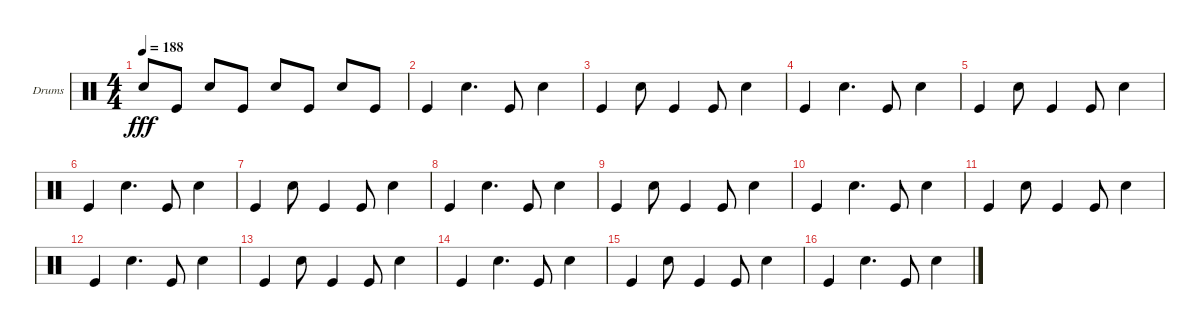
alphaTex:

\defaultSystemsLayout 4
\bracketExtendMode groupsimilarinstruments
\firstSystemTrackNameOrientation horizontal
\otherSystemsTrackNameOrientation horizontal
\track ("Пашок" "Drums") {instrument percussion}
\staff {score}
\articulation defaults
\ts (4 4)
\tempo 188
\clef neutral
\ks c "Snare (hit) 2".8{dy fff} "Kick (hit)".8 "Snare (hit) 2".8 "Kick (hit)".8 "Snare (hit) 2".8 "Kick (hit)".8 "Snare (hit) 2".8 "Kick (hit)".8
|
"Kick (hit)".4 "Snare (hit) 2".4{d} "Kick (hit)".8 "Snare (hit) 2".4 |
"Kick (hit)".4 "Snare (hit) 2".8 "Kick (hit)".4 "Kick (hit)".8 "Snare (hit) 2".4 |
"Kick (hit)".4 "Snare (hit) 2".4{d} "Kick (hit)".8 "Snare (hit) 2".4 |
"Kick (hit)".4 "Snare (hit) 2".8 "Kick (hit)".4 "Kick (hit)".8 "Snare (hit) 2".4 |
"Kick (hit)".4 "Snare (hit) 2".4{d} "Kick (hit)".8 "Snare (hit) 2".4 |
"Kick (hit)".4 "Snare (hit) 2".8 "Kick (hit)".4 "Kick (hit)".8 "Snare (hit) 2".4 |
"Kick (hit)".4 "Snare (hit) 2".4{d} "Kick (hit)".8 "Snare (hit) 2".4 |
"Kick (hit)".4 "Snare (hit) 2".8 "Kick (hit)".4 "Kick (hit)".8 "Snare (hit) 2".4 |
"Kick (hit)".4 "Snare (hit) 2".4{d} "Kick (hit)".8 "Snare (hit) 2".4 |
"Kick (hit)".4 "Snare (hit) 2".8 "Kick (hit)".4 "Kick (hit)".8 "Snare (hit) 2".4 |
"Kick (hit)".4 "Snare (hit) 2".4{d} "Kick (hit)".8 "Snare (hit) 2".4 |
"Kick (hit)".4 "Snare (hit) 2".8 "Kick (hit)".4 "Kick (hit)".8 "Snare (hit) 2".4 |
"Kick (hit)".4 "Snare (hit) 2".4{d} "Kick (hit)".8 "Snare (hit) 2".4 |
"Kick (hit)".4 "Snare (hit) 2".8 "Kick (hit)".4 "Kick (hit)".8 "Snare (hit) 2".4 |
"Kick (hit)".4 "Snare (hit) 2".4{d} "Kick (hit)".8 "Snare (hit) 2".4
